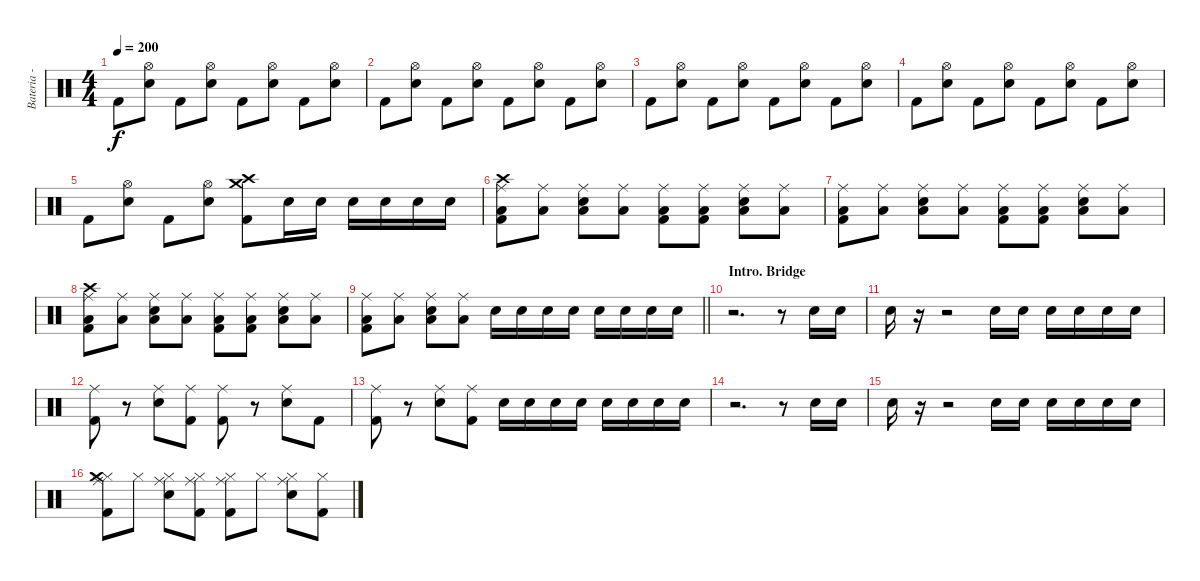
\track ("Bateria - Larzon" "Bateria - ") {instrument percussion}
\staff {score}
\articulation defaults
\ts (4 4)
\tempo 200
\clef neutral
\ks c "Kick (hit) 2".8{dy f}
("Hi-Hat (open)" "Electric Snare (hit)").8 "Kick (hit) 2".8 ("Hi-Hat (open)" "Electric Snare (hit)").8 "Kick (hit) 2".8 ("Hi-Hat (open)" "Electric Snare (hit)").8 "Kick (hit) 2".8 ("Hi-Hat (open)" "Electric Snare (hit)").8 |
"Kick (hit) 2".8 ("Hi-Hat (open)" "Electric Snare (hit)").8 "Kick (hit) 2".8 ("Hi-Hat (open)" "Electric Snare (hit)").8 "Kick (hit) 2".8 ("Hi-Hat (open)" "Electric Snare (hit)").8 "Kick (hit) 2".8 ("Hi-Hat (open)" "Electric Snare (hit)").8 |
"Kick (hit) 2".8 ("Hi-Hat (open)" "Electric Snare (hit)").8 "Kick (hit) 2".8 ("Hi-Hat (open)" "Electric Snare (hit)").8 "Kick (hit) 2".8 ("Hi-Hat (open)" "Electric Snare (hit)").8 "Kick (hit) 2".8 ("Hi-Hat (open)" "Electric Snare (hit)").8 |
"Kick (hit) 2".8 ("Hi-Hat (open)" "Electric Snare (hit)").8 "Kick (hit) 2".8 ("Hi-Hat (open)" "Electric Snare (hit)").8 "Kick (hit) 2".8 ("Hi-Hat (open)" "Electric Snare (hit)").8 "Kick (hit) 2".8 ("Hi-Hat (open)" "Electric Snare (hit)").8 |
"Kick (hit) 2".8 ("Hi-Hat (open)" "Electric Snare (hit)").8 "Kick (hit) 2".8 ("Hi-Hat (open)" "Electric Snare (hit)").8 ("Kick (hit) 2" "Crash high (hit)" "Crash medium (hit)").8 "Electric Snare (hit)".16 "Electric Snare (hit)".16 "Electric Snare (hit)".16 "Electric Snare (hit)".16 "Electric Snare (hit)".16 "Electric Snare (hit)".16 |
("Low Floor Tom (hit)" "Kick (hit) 2" "Crash high (hit)" "Ride (middle)").8 ("Low Floor Tom (hit)" "Ride (middle)").8 ("Low Floor Tom (hit)" "Electric Snare (hit)" "Ride (middle)").8 ("Low Floor Tom (hit)" "Ride (middle)").8 ("Low Floor Tom (hit)" "Kick (hit) 2" "Ride (middle)").8 ("Low Floor Tom (hit)" "Kick (hit) 2" "Ride (middle)").8 ("Low Floor Tom (hit)" "Electric Snare (hit)" "Ride (middle)").8 ("Low Floor Tom (hit)" "Ride (middle)").8 |
("Low Floor Tom (hit)" "Kick (hit) 2" "Ride (middle)").8 ("Low Floor Tom (hit)" "Ride (middle)").8 ("Low Floor Tom (hit)" "Electric Snare (hit)" "Ride (middle)").8 ("Low Floor Tom (hit)" "Ride (middle)").8 ("Low Floor Tom (hit)" "Kick (hit) 2" "Ride (middle)").8 ("Low Floor Tom (hit)" "Kick (hit) 2" "Ride (middle)").8 ("Low Floor Tom (hit)" "Electric Snare (hit)" "Ride (middle)").8 ("Low Floor Tom (hit)" "Ride (middle)").8 |
("Low Floor Tom (hit)" "Kick (hit) 2" "Crash high (hit)" "Ride (middle)").8 ("Low Floor Tom (hit)" "Ride (middle)").8 ("Low Floor Tom (hit)" "Electric Snare (hit)" "Ride (middle)").8 ("Low Floor Tom (hit)" "Ride (middle)").8 ("Low Floor Tom (hit)" "Kick (hit) 2" "Ride (middle)").8 ("Low Floor Tom (hit)" "Kick (hit) 2" "Ride (middle)").8 ("Low Floor Tom (hit)" "Electric Snare (hit)" "Ride (middle)").8 ("Low Floor Tom (hit)" "Ride (middle)").8 |
\barLineRight lightlight
("Low Floor Tom (hit)" "Kick (hit) 2" "Ride (middle)").8 ("Low Floor Tom (hit)" "Ride (middle)").8 ("Low Floor Tom (hit)" "Electric Snare (hit)" "Ride (middle)").8 ("Low Floor Tom (hit)" "Ride (middle)").8 "Electric Snare (hit)".16 "Electric Snare (hit)".16 "Electric Snare (hit)".16 "Electric Snare (hit)".16 "Electric Snare (hit)".16 "Electric Snare (hit)".16 "Electric Snare (hit)".16 "Electric Snare (hit)".16 |
\section ("" "Intro. Bridge")
r.2{d} r.8 "Electric Snare (hit)".16 "Electric Snare (hit)".16 |
"Electric Snare (hit)".16 r.16 r.2 "Electric Snare (hit)".16 "Electric Snare (hit)".16 "Electric Snare (hit)".16 "Electric Snare (hit)".16 "Electric Snare (hit)".16 "Electric Snare (hit)".16 |
("Kick (hit) 2" "Ride (middle)").8 r.8 ("Electric Snare (hit)" "Ride (middle)").8 ("Kick (hit) 2" "Ride (middle)").8 ("Kick (hit) 2" "Ride (middle)").8 r.8 ("Electric Snare (hit)" "Ride (middle)").8 "Kick (hit) 2".8 |
("Kick (hit) 2" "Ride (middle)").8 r.8 ("Electric Snare (hit)" "Ride (middle)").8 ("Kick (hit) 2" "Ride (middle)").8 "Electric Snare (hit)".16 "Electric Snare (hit)".16 "Electric Snare (hit)".16 "Electric Snare (hit)".16 "Electric Snare (hit)".16 "Electric Snare (hit)".16 "Electric Snare (hit)".16 "Electric Snare (hit)".16 |
r.2{d} r.8 "Electric Snare (hit)".16 "Electric Snare (hit)".16 |
"Electric Snare (hit)".16 r.16 r.2 "Electric Snare (hit)".16 "Electric Snare (hit)".16 "Electric Snare (hit)".16 "Electric Snare (hit)".16 "Electric Snare (hit)".16 "Electric Snare (hit)".16 |
("Kick (hit) 2" "Hi-Hat (closed)" "Ride (middle)" "Crash medium (hit)").8 "Hi-Hat (closed)".8 ("Electric Snare (hit)" "Hi-Hat (closed)" "Ride (middle)").8 ("Kick (hit) 2" "Hi-Hat (closed)" "Ride (middle)").8 ("Kick (hit) 2" "Hi-Hat (closed)" "Ride (middle)").8 "Hi-Hat (closed)".8 ("Electric Snare (hit)" "Hi-Hat (closed)" "Ride (middle)").8 ("Kick (hit) 2" "Hi-Hat (closed)").8
